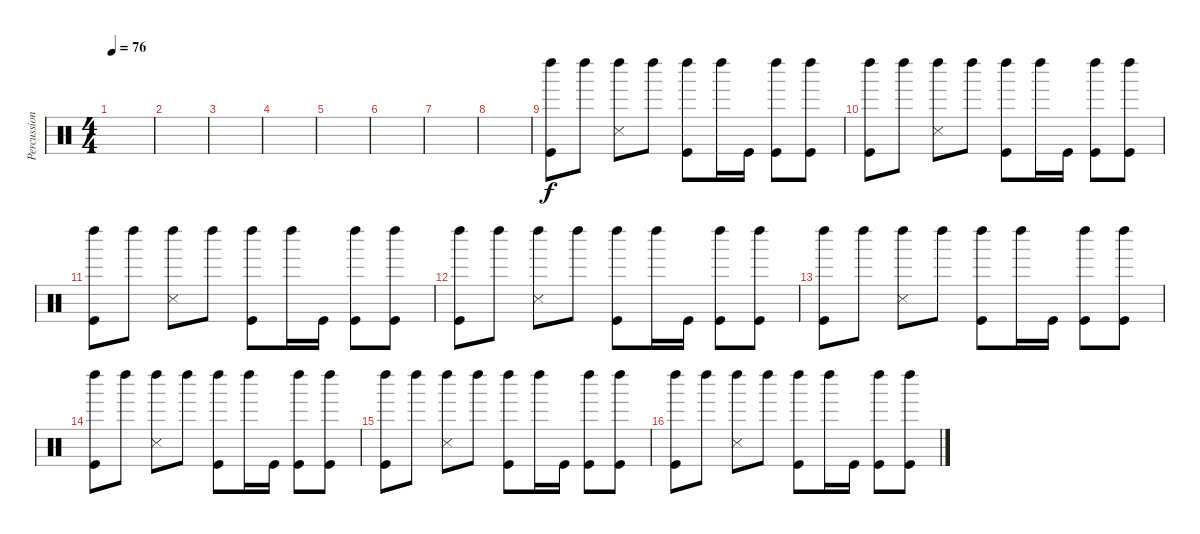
\track ("Percussion" "Percussion") {instrument percussion}
\staff {score}
\articulation defaults
\ts (4 4)
\tempo 76
\clef neutral
\ks c
|
|
|
|
|
|
|
|
("Left Maraca (hit)" "Kick (hit)").8 "Left Maraca (hit)".8 ("Left Maraca (hit)" "Snare (side stick) 3").8 "Left Maraca (hit)".8 ("Left Maraca (hit)" "Kick (hit)").8 "Left Maraca (hit)".16 "Kick (hit)".16 ("Left Maraca (hit)" "Kick (hit)").8 ("Left Maraca (hit)" "Kick (hit)").8 |
("Left Maraca (hit)" "Kick (hit)").8 "Left Maraca (hit)".8 ("Left Maraca (hit)" "Snare (side stick) 3").8 "Left Maraca (hit)".8 ("Left Maraca (hit)" "Kick (hit)").8 "Left Maraca (hit)".16 "Kick (hit)".16 ("Left Maraca (hit)" "Kick (hit)").8 ("Left Maraca (hit)" "Kick (hit)").8 |
("Left Maraca (hit)" "Kick (hit)").8 "Left Maraca (hit)".8 ("Left Maraca (hit)" "Snare (side stick) 3").8 "Left Maraca (hit)".8 ("Left Maraca (hit)" "Kick (hit)").8 "Left Maraca (hit)".16 "Kick (hit)".16 ("Left Maraca (hit)" "Kick (hit)").8 ("Left Maraca (hit)" "Kick (hit)").8 |
("Left Maraca (hit)" "Kick (hit)").8 "Left Maraca (hit)".8 ("Left Maraca (hit)" "Snare (side stick) 3").8 "Left Maraca (hit)".8 ("Left Maraca (hit)" "Kick (hit)").8 "Left Maraca (hit)".16 "Kick (hit)".16 ("Left Maraca (hit)" "Kick (hit)").8 ("Left Maraca (hit)" "Kick (hit)").8 |
("Left Maraca (hit)" "Kick (hit)").8 "Left Maraca (hit)".8 ("Left Maraca (hit)" "Snare (side stick) 3").8 "Left Maraca (hit)".8 ("Left Maraca (hit)" "Kick (hit)").8 "Left Maraca (hit)".16 "Kick (hit)".16 ("Left Maraca (hit)" "Kick (hit)").8 ("Left Maraca (hit)" "Kick (hit)").8 |
("Left Maraca (hit)" "Kick (hit)").8 "Left Maraca (hit)".8 ("Left Maraca (hit)" "Snare (side stick) 3").8 "Left Maraca (hit)".8 ("Left Maraca (hit)" "Kick (hit)").8 "Left Maraca (hit)".16 "Kick (hit)".16 ("Left Maraca (hit)" "Kick (hit)").8 ("Left Maraca (hit)" "Kick (hit)").8 |
("Left Maraca (hit)" "Kick (hit)").8 "Left Maraca (hit)".8 ("Left Maraca (hit)" "Snare (side stick) 3").8 "Left Maraca (hit)".8 ("Left Maraca (hit)" "Kick (hit)").8 "Left Maraca (hit)".16 "Kick (hit)".16 ("Left Maraca (hit)" "Kick (hit)").8 ("Left Maraca (hit)" "Kick (hit)").8 |
("Left Maraca (hit)" "Kick (hit)").8 "Left Maraca (hit)".8 ("Left Maraca (hit)" "Snare (side stick) 3").8 "Left Maraca (hit)".8 ("Left Maraca (hit)" "Kick (hit)").8 "Left Maraca (hit)".16 "Kick (hit)".16 ("Left Maraca (hit)" "Kick (hit)").8 ("Left Maraca (hit)" "Kick (hit)").8
